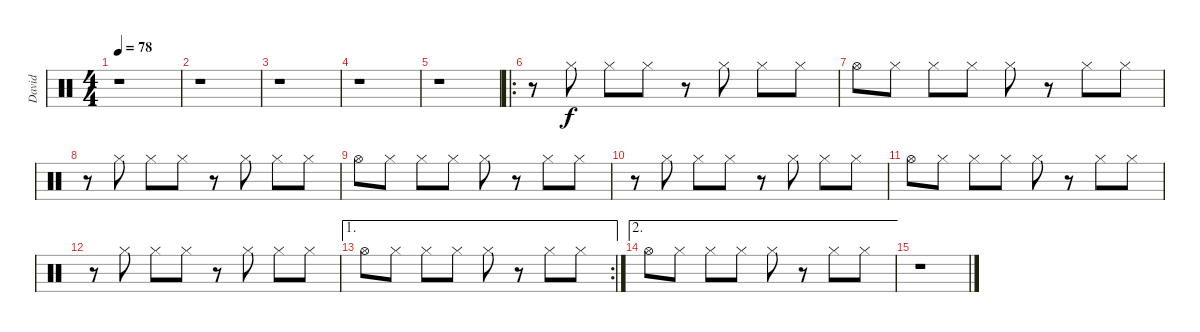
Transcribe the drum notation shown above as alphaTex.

\track ("David" "David") {instrument percussion}
\staff {score}
\articulation defaults
\ts (4 4)
\tempo 78
\clef neutral
\ks c
r.1{dy f} |
r.1 |
r.1 |
r.1 |
r.1 |
\ro
r.8 "Hi-Hat (closed)".8 "Hi-Hat (closed)".8 "Hi-Hat (closed)".8 r.8 "Hi-Hat (closed)".8 "Hi-Hat (closed)".8 "Hi-Hat (closed)".8 |
"Hi-Hat (open)".8 "Hi-Hat (closed)".8 "Hi-Hat (closed)".8 "Hi-Hat (closed)".8 "Hi-Hat (closed)".8 r.8 "Hi-Hat (closed)".8 "Hi-Hat (closed)".8 |
r.8 "Hi-Hat (closed)".8 "Hi-Hat (closed)".8 "Hi-Hat (closed)".8 r.8 "Hi-Hat (closed)".8 "Hi-Hat (closed)".8 "Hi-Hat (closed)".8 |
"Hi-Hat (open)".8 "Hi-Hat (closed)".8 "Hi-Hat (closed)".8 "Hi-Hat (closed)".8 "Hi-Hat (closed)".8 r.8 "Hi-Hat (closed)".8 "Hi-Hat (closed)".8 |
r.8 "Hi-Hat (closed)".8 "Hi-Hat (closed)".8 "Hi-Hat (closed)".8 r.8 "Hi-Hat (closed)".8 "Hi-Hat (closed)".8 "Hi-Hat (closed)".8 |
"Hi-Hat (open)".8 "Hi-Hat (closed)".8 "Hi-Hat (closed)".8 "Hi-Hat (closed)".8 "Hi-Hat (closed)".8 r.8 "Hi-Hat (closed)".8 "Hi-Hat (closed)".8 |
r.8 "Hi-Hat (closed)".8 "Hi-Hat (closed)".8 "Hi-Hat (closed)".8 r.8 "Hi-Hat (closed)".8 "Hi-Hat (closed)".8 "Hi-Hat (closed)".8 |
\ae 1
\rc 2 "Hi-Hat (open)".8 "Hi-Hat (closed)".8 "Hi-Hat (closed)".8 "Hi-Hat (closed)".8 "Hi-Hat (closed)".8
r.8 "Hi-Hat (closed)".8 "Hi-Hat (closed)".8 |
\ae 2 "Hi-Hat (open)".8 "Hi-Hat (closed)".8 "Hi-Hat (closed)".8 "Hi-Hat (closed)".8 "Hi-Hat (closed)".8
r.8 "Hi-Hat (closed)".8 "Hi-Hat (closed)".8 |
r.1
